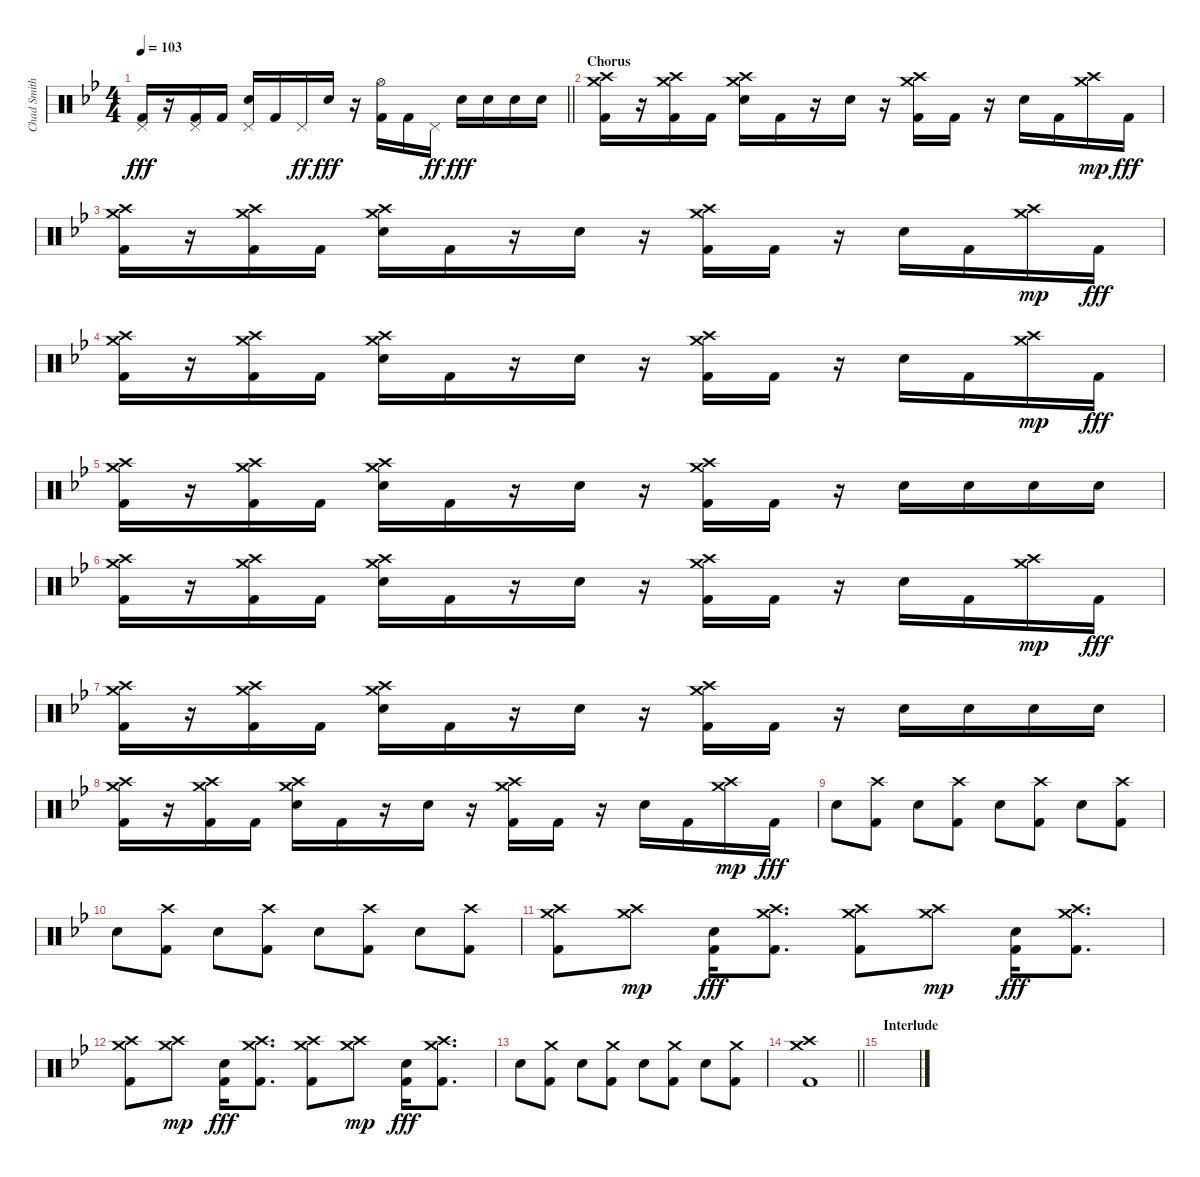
\track ("Chad Smith (Drums)" "Chad Smith") {instrument percussion}
\staff {score}
\articulation defaults
\ts (4 4)
\tempo 103
\clef neutral
\barLineRight lightlight
\ks bb
("Pedal Hi-Hat (hit)" "Kick (hit) 2").16{dy fff} r.16 ("Pedal Hi-Hat (hit)" "Kick (hit) 2").16 "Kick (hit) 2".16 ("Pedal Hi-Hat (hit)" "Snare (hit) 2").16 "Kick (hit) 2".16 "Pedal Hi-Hat (hit)".16{dy ff} "Snare (hit) 2".16{dy fff} r.16 ("Hi-Hat (open)" "Kick (hit) 2").16 "Kick (hit) 2".16 "Pedal Hi-Hat (hit)".16{dy ff} "Snare (hit) 2".16{dy fff} "Snare (hit) 2".16 "Snare (hit) 2".16 "Snare (hit) 2".16 |
\section ("" "Chorus")
("Crash medium (hit)" "Crash high (hit)" "Kick (hit) 2").16{volume 11} r.16 ("Crash medium (hit)" "Crash high (hit)" "Kick (hit) 2").16 "Kick (hit) 2".16 ("Crash medium (hit)" "Crash high (hit)" "Snare (hit) 2").16 "Kick (hit) 2".16 r.16 "Snare (hit) 2".16 r.16 ("Crash medium (hit)" "Crash high (hit)" "Kick (hit) 2").16 "Kick (hit) 2".16 r.16 "Snare (hit) 2".16 "Kick (hit) 2".16 ("Crash medium (hit)" "Crash high (hit)").16{dy mp} "Kick (hit) 2".16{dy fff} |
("Crash medium (hit)" "Crash high (hit)" "Kick (hit) 2").16 r.16 ("Crash medium (hit)" "Crash high (hit)" "Kick (hit) 2").16 "Kick (hit) 2".16 ("Crash medium (hit)" "Crash high (hit)" "Snare (hit) 2").16 "Kick (hit) 2".16 r.16 "Snare (hit) 2".16 r.16 ("Crash medium (hit)" "Crash high (hit)" "Kick (hit) 2").16 "Kick (hit) 2".16 r.16 "Snare (hit) 2".16 "Kick (hit) 2".16 ("Crash medium (hit)" "Crash high (hit)").16{dy mp} "Kick (hit) 2".16{dy fff} |
("Crash medium (hit)" "Crash high (hit)" "Kick (hit) 2").16 r.16 ("Crash medium (hit)" "Crash high (hit)" "Kick (hit) 2").16 "Kick (hit) 2".16 ("Crash medium (hit)" "Crash high (hit)" "Snare (hit) 2").16 "Kick (hit) 2".16 r.16 "Snare (hit) 2".16 r.16 ("Crash medium (hit)" "Crash high (hit)" "Kick (hit) 2").16 "Kick (hit) 2".16 r.16 "Snare (hit) 2".16 "Kick (hit) 2".16 ("Crash medium (hit)" "Crash high (hit)").16{dy mp} "Kick (hit) 2".16{dy fff} |
("Crash medium (hit)" "Crash high (hit)" "Kick (hit) 2").16 r.16 ("Crash medium (hit)" "Crash high (hit)" "Kick (hit) 2").16 "Kick (hit) 2".16 ("Crash medium (hit)" "Crash high (hit)" "Snare (hit) 2").16 "Kick (hit) 2".16 r.16 "Snare (hit) 2".16 r.16 ("Crash medium (hit)" "Crash high (hit)" "Kick (hit) 2").16 "Kick (hit) 2".16 r.16 "Snare (hit) 2".16 "Snare (hit) 2".16 "Snare (hit) 2".16 "Snare (hit) 2".16 |
("Crash medium (hit)" "Crash high (hit)" "Kick (hit) 2").16 r.16 ("Crash medium (hit)" "Crash high (hit)" "Kick (hit) 2").16 "Kick (hit) 2".16 ("Crash medium (hit)" "Crash high (hit)" "Snare (hit) 2").16 "Kick (hit) 2".16 r.16 "Snare (hit) 2".16 r.16 ("Crash medium (hit)" "Crash high (hit)" "Kick (hit) 2").16 "Kick (hit) 2".16 r.16 "Snare (hit) 2".16 "Kick (hit) 2".16 ("Crash medium (hit)" "Crash high (hit)").16{dy mp} "Kick (hit) 2".16{dy fff} |
("Crash medium (hit)" "Crash high (hit)" "Kick (hit) 2").16 r.16 ("Crash medium (hit)" "Crash high (hit)" "Kick (hit) 2").16 "Kick (hit) 2".16 ("Crash medium (hit)" "Crash high (hit)" "Snare (hit) 2").16 "Kick (hit) 2".16 r.16 "Snare (hit) 2".16 r.16 ("Crash medium (hit)" "Crash high (hit)" "Kick (hit) 2").16 "Kick (hit) 2".16 r.16 "Snare (hit) 2".16 "Snare (hit) 2".16 "Snare (hit) 2".16 "Snare (hit) 2".16 |
("Crash medium (hit)" "Crash high (hit)" "Kick (hit) 2").16 r.16 ("Crash medium (hit)" "Crash high (hit)" "Kick (hit) 2").16 "Kick (hit) 2".16 ("Crash medium (hit)" "Crash high (hit)" "Snare (hit) 2").16 "Kick (hit) 2".16 r.16 "Snare (hit) 2".16 r.16 ("Crash medium (hit)" "Crash high (hit)" "Kick (hit) 2").16 "Kick (hit) 2".16 r.16 "Snare (hit) 2".16 "Kick (hit) 2".16 ("Crash medium (hit)" "Crash high (hit)").16{dy mp} "Kick (hit) 2".16{dy fff} |
"Snare (hit) 2".8 ("Crash high (hit)" "Kick (hit) 2").8 "Snare (hit) 2".8 ("Crash high (hit)" "Kick (hit) 2").8 "Snare (hit) 2".8 ("Crash high (hit)" "Kick (hit) 2").8 "Snare (hit) 2".8 ("Crash high (hit)" "Kick (hit) 2").8 |
"Snare (hit) 2".8 ("Crash high (hit)" "Kick (hit) 2").8 "Snare (hit) 2".8 ("Crash high (hit)" "Kick (hit) 2").8 "Snare (hit) 2".8 ("Crash high (hit)" "Kick (hit) 2").8 "Snare (hit) 2".8 ("Crash high (hit)" "Kick (hit) 2").8 |
("Crash medium (hit)" "Crash high (hit)" "Kick (hit) 2").8 ("Crash medium (hit)" "Crash high (hit)").8{dy mp} ("Snare (hit) 2" "Kick (hit) 2").16{dy fff} ("Crash medium (hit)" "Crash high (hit)" "Kick (hit) 2").8{d} ("Crash medium (hit)" "Crash high (hit)" "Kick (hit) 2").8 ("Crash medium (hit)" "Crash high (hit)").8{dy mp} ("Snare (hit) 2" "Kick (hit) 2").16{dy fff} ("Crash medium (hit)" "Crash high (hit)" "Kick (hit) 2").8{d} |
("Crash medium (hit)" "Crash high (hit)" "Kick (hit) 2").8 ("Crash medium (hit)" "Crash high (hit)").8{dy mp} ("Snare (hit) 2" "Kick (hit) 2").16{dy fff} ("Crash medium (hit)" "Crash high (hit)" "Kick (hit) 2").8{d} ("Crash medium (hit)" "Crash high (hit)" "Kick (hit) 2").8 ("Crash medium (hit)" "Crash high (hit)").8{dy mp} ("Snare (hit) 2" "Kick (hit) 2").16{dy fff} ("Crash medium (hit)" "Crash high (hit)" "Kick (hit) 2").8{d} |
"Snare (hit) 2".8 ("Crash medium (hit)" "Kick (hit) 2").8 "Snare (hit) 2".8 ("Crash medium (hit)" "Kick (hit) 2").8 "Snare (hit) 2".8 ("Crash medium (hit)" "Kick (hit) 2").8 "Snare (hit) 2".8 ("Crash medium (hit)" "Kick (hit) 2").8 |
\barLineRight lightlight
("Crash medium (hit)" "Crash high (hit)" "Kick (hit) 2").1{volume 13} |
\section ("" "Interlude")
